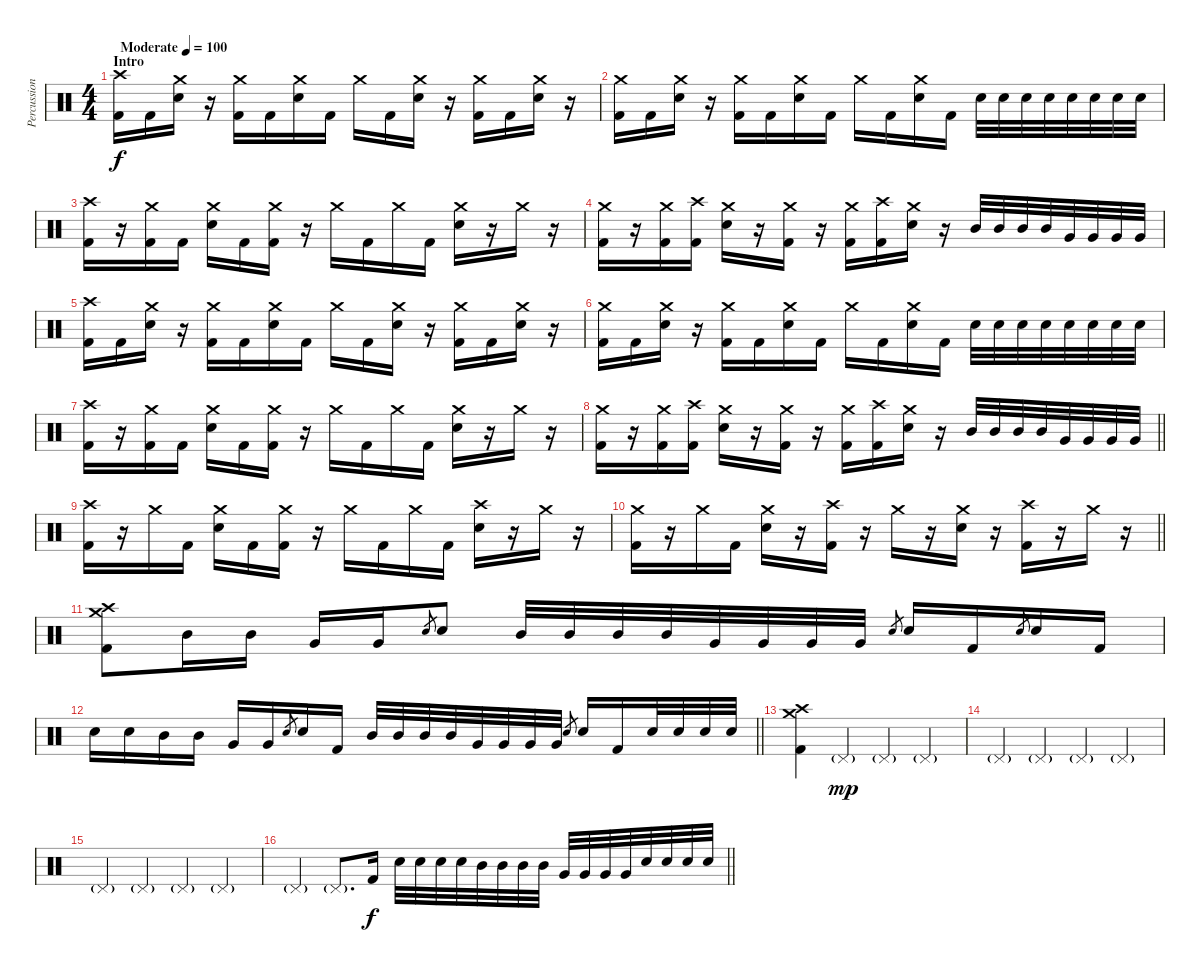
\track ("Percussion" "Percussion") {instrument percussion}
\staff {score}
\articulation defaults
\ts (4 4)
\section ("" "Intro")
\tempo (100 "Moderate")
\clef neutral
\ks c
("Crash high (hit)" "Kick (hit) 2").16{dy f} "Kick (hit) 2".16 ("Crash medium (hit)" "Electric Snare (hit)").16 r.16 ("Crash medium (hit)" "Kick (hit) 2").16 "Kick (hit) 2".16 ("Crash medium (hit)" "Electric Snare (hit)").16 "Kick (hit) 2".16 "Crash medium (hit)".16 "Kick (hit) 2".16 ("Crash medium (hit)" "Electric Snare (hit)").16 r.16 ("Crash medium (hit)" "Kick (hit) 2").16 "Kick (hit) 2".16 ("Crash medium (hit)" "Electric Snare (hit)").16 r.16 |
("Crash medium (hit)" "Kick (hit) 2").16 "Kick (hit) 2".16 ("Crash medium (hit)" "Electric Snare (hit)").16 r.16 ("Crash medium (hit)" "Kick (hit) 2").16 "Kick (hit) 2".16 ("Crash medium (hit)" "Electric Snare (hit)").16 "Kick (hit) 2".16 "Crash medium (hit)".16 "Kick (hit) 2".16 ("Crash medium (hit)" "Electric Snare (hit)").16 "Kick (hit) 2".16 "Electric Snare (hit)".32 "Electric Snare (hit)".32 "Electric Snare (hit)".32 "Electric Snare (hit)".32 "Electric Snare (hit)".32 "Electric Snare (hit)".32 "Electric Snare (hit)".32 "Electric Snare (hit)".32 |
("Crash high (hit)" "Kick (hit) 2").16 r.16 ("Crash medium (hit)" "Kick (hit) 2").16 "Kick (hit) 2".16 ("Crash medium (hit)" "Electric Snare (hit)").16 "Kick (hit) 2".16 ("Crash medium (hit)" "Kick (hit) 2").16 r.16 "Crash medium (hit)".16 "Kick (hit) 2".16 "Crash medium (hit)".16 "Kick (hit) 2".16 ("Crash medium (hit)" "Electric Snare (hit)").16 r.16 "Crash medium (hit)".16 r.16 |
("Crash medium (hit)" "Kick (hit) 2").16 r.16 ("Crash medium (hit)" "Kick (hit) 2").16 ("Crash high (hit)" "Kick (hit) 2").16 ("Crash medium (hit)" "Electric Snare (hit)").16 r.16 ("Crash medium (hit)" "Kick (hit) 2").16 r.16 ("Crash medium (hit)" "Kick (hit) 2").16 ("Crash high (hit)" "Kick (hit) 2").16 ("Crash medium (hit)" "Electric Snare (hit)").16 r.16 "Mid Tom (hit)".32 "Mid Tom (hit)".32 "Mid Tom (hit)".32 "Mid Tom (hit)".32 "Very Low Tom (hit)".32 "Very Low Tom (hit)".32 "Very Low Tom (hit)".32 "Very Low Tom (hit)".32 |
("Crash high (hit)" "Kick (hit) 2").16 "Kick (hit) 2".16 ("Crash medium (hit)" "Electric Snare (hit)").16 r.16 ("Crash medium (hit)" "Kick (hit) 2").16 "Kick (hit) 2".16 ("Crash medium (hit)" "Electric Snare (hit)").16 "Kick (hit) 2".16 "Crash medium (hit)".16 "Kick (hit) 2".16 ("Crash medium (hit)" "Electric Snare (hit)").16 r.16 ("Crash medium (hit)" "Kick (hit) 2").16 "Kick (hit) 2".16 ("Crash medium (hit)" "Electric Snare (hit)").16 r.16 |
("Crash medium (hit)" "Kick (hit) 2").16 "Kick (hit) 2".16 ("Crash medium (hit)" "Electric Snare (hit)").16 r.16 ("Crash medium (hit)" "Kick (hit) 2").16 "Kick (hit) 2".16 ("Crash medium (hit)" "Electric Snare (hit)").16 "Kick (hit) 2".16 "Crash medium (hit)".16 "Kick (hit) 2".16 ("Crash medium (hit)" "Electric Snare (hit)").16 "Kick (hit) 2".16 "Electric Snare (hit)".32 "Electric Snare (hit)".32 "Electric Snare (hit)".32 "Electric Snare (hit)".32 "Electric Snare (hit)".32 "Electric Snare (hit)".32 "Electric Snare (hit)".32 "Electric Snare (hit)".32 |
("Crash high (hit)" "Kick (hit) 2").16 r.16 ("Crash medium (hit)" "Kick (hit) 2").16 "Kick (hit) 2".16 ("Crash medium (hit)" "Electric Snare (hit)").16 "Kick (hit) 2".16 ("Crash medium (hit)" "Kick (hit) 2").16 r.16 "Crash medium (hit)".16 "Kick (hit) 2".16 "Crash medium (hit)".16 "Kick (hit) 2".16 ("Crash medium (hit)" "Electric Snare (hit)").16 r.16 "Crash medium (hit)".16 r.16 |
\barLineRight lightlight
("Crash medium (hit)" "Kick (hit) 2").16 r.16 ("Crash medium (hit)" "Kick (hit) 2").16 ("Crash high (hit)" "Kick (hit) 2").16 ("Crash medium (hit)" "Electric Snare (hit)").16 r.16 ("Crash medium (hit)" "Kick (hit) 2").16 r.16 ("Crash medium (hit)" "Kick (hit) 2").16 ("Crash high (hit)" "Kick (hit) 2").16 ("Crash medium (hit)" "Electric Snare (hit)").16 r.16 "Mid Tom (hit)".32 "Mid Tom (hit)".32 "Mid Tom (hit)".32 "Mid Tom (hit)".32 "Very Low Tom (hit)".32 "Very Low Tom (hit)".32 "Very Low Tom (hit)".32 "Very Low Tom (hit)".32 |
("Crash high (hit)" "Kick (hit) 2").16 r.16 "Crash medium (hit)".16 "Kick (hit) 2".16 ("Crash medium (hit)" "Electric Snare (hit)").16 "Kick (hit) 2".16 ("Crash medium (hit)" "Kick (hit) 2").16 r.16 "Crash medium (hit)".16 "Kick (hit) 2".16 "Crash medium (hit)".16 "Kick (hit) 2".16 ("Crash high (hit)" "Electric Snare (hit)").16 r.16 "Crash medium (hit)".16 r.16 |
\barLineRight lightlight
("Crash medium (hit)" "Kick (hit) 2").16 r.16 "Crash medium (hit)".16 "Kick (hit) 2".16 ("Crash medium (hit)" "Electric Snare (hit)").16 r.16 ("Crash high (hit)" "Kick (hit) 2").16 r.16 "Crash medium (hit)".16 r.16 ("Crash medium (hit)" "Electric Snare (hit)").16 r.16 ("Crash high (hit)" "Kick (hit) 2").16 r.16 "Crash medium (hit)".16 r.16 |
("Crash high (hit)" "Crash medium (hit)" "Kick (hit) 2").8 "Mid Tom (hit)".16 "Mid Tom (hit)".16 "Very Low Tom (hit)".16 "Very Low Tom (hit)".16 "Electric Snare (hit)".8{gr} "Electric Snare (hit)".8 "Mid Tom (hit)".32 "Mid Tom (hit)".32 "Mid Tom (hit)".32 "Mid Tom (hit)".32 "Very Low Tom (hit)".32 "Very Low Tom (hit)".32 "Very Low Tom (hit)".32 "Very Low Tom (hit)".32 "Electric Snare (hit)".8{gr} "Electric Snare (hit)".16 "Kick (hit) 2".16 "Electric Snare (hit)".8{gr} "Electric Snare (hit)".16 "Kick (hit) 2".16 |
\barLineRight lightlight "Electric Snare (hit)".16 "Electric Snare (hit)".16 "Mid Tom (hit)".16 "Mid Tom (hit)".16 "Very Low Tom (hit)".16 "Very Low Tom (hit)".16 "Electric Snare (hit)".8{gr} "Electric Snare (hit)".16 "Kick (hit) 2".16 "Mid Tom (hit)".32 "Mid Tom (hit)".32 "Mid Tom (hit)".32 "Mid Tom (hit)".32 "Very Low Tom (hit)".32 "Very Low Tom (hit)".32 "Very Low Tom (hit)".32 "Very Low Tom (hit)".32 "Electric Snare (hit)".8{gr} "Electric Snare (hit)".16 "Kick (hit) 2".16 "Electric Snare (hit)".32 "Electric Snare (hit)".32 "Electric Snare (hit)".32 "Electric Snare (hit)".32
|
("Crash high (hit)" "Crash medium (hit)" "Kick (hit) 2").4 "Pedal Hi-Hat (hit)"{g}.4{dy mp} "Pedal Hi-Hat (hit)"{g}.4 "Pedal Hi-Hat (hit)"{g}.4 |
"Pedal Hi-Hat (hit)"{g}.4 "Pedal Hi-Hat (hit)"{g}.4 "Pedal Hi-Hat (hit)"{g}.4 "Pedal Hi-Hat (hit)"{g}.4 |
"Pedal Hi-Hat (hit)"{g}.4 "Pedal Hi-Hat (hit)"{g}.4 "Pedal Hi-Hat (hit)"{g}.4 "Pedal Hi-Hat (hit)"{g}.4 |
\barLineRight lightlight "Pedal Hi-Hat (hit)"{g}.4 "Pedal Hi-Hat (hit)"{g}.8{d} "Kick (hit) 2".16{dy f} "Electric Snare (hit)".32 "Electric Snare (hit)".32 "Electric Snare (hit)".32 "Electric Snare (hit)".32 "Mid Tom (hit)".32 "Mid Tom (hit)".32 "Mid Tom (hit)".32 "Mid Tom (hit)".32 "Very Low Tom (hit)".32 "Very Low Tom (hit)".32 "Very Low Tom (hit)".32 "Very Low Tom (hit)".32 "Electric Snare (hit)".32 "Electric Snare (hit)".32 "Electric Snare (hit)".32 "Electric Snare (hit)".32
